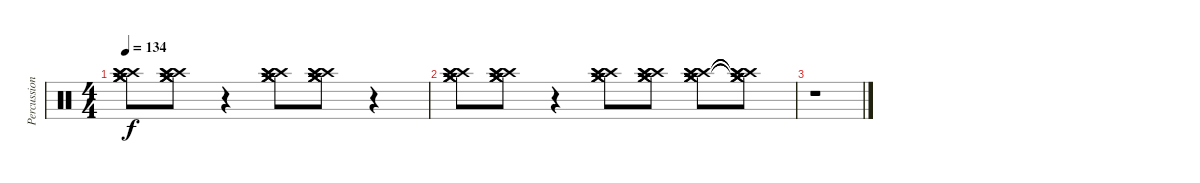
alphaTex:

\track ("Percussion 2" "Percussion") {instrument percussion}
\staff {score}
\articulation defaults
\ts (4 4)
\tempo 134
\clef neutral
\ks c
("Crash medium (hit)" "Crash medium (hit)" "Crash medium (hit)" "Crash high (hit)" "Crash high (hit)" "Crash high (hit)").8{dy f} ("Crash medium (hit)" "Crash medium (hit)" "Crash medium (hit)" "Crash high (hit)" "Crash high (hit)" "Crash high (hit)").8 r.4 ("Crash medium (hit)" "Crash medium (hit)" "Crash medium (hit)" "Crash high (hit)" "Crash high (hit)" "Crash high (hit)").8 ("Crash medium (hit)" "Crash medium (hit)" "Crash medium (hit)" "Crash high (hit)" "Crash high (hit)" "Crash high (hit)").8 r.4 |
("Crash medium (hit)" "Crash medium (hit)" "Crash medium (hit)" "Crash high (hit)" "Crash high (hit)" "Crash high (hit)").8 ("Crash medium (hit)" "Crash medium (hit)" "Crash medium (hit)" "Crash high (hit)" "Crash high (hit)" "Crash high (hit)").8 r.4 ("Crash medium (hit)" "Crash medium (hit)" "Crash medium (hit)" "Crash high (hit)" "Crash high (hit)" "Crash high (hit)").8 ("Crash medium (hit)" "Crash medium (hit)" "Crash medium (hit)" "Crash high (hit)" "Crash high (hit)" "Crash high (hit)").8 ("Crash medium (hit)" "Crash medium (hit)" "Crash medium (hit)" "Crash high (hit)" "Crash high (hit)" "Crash high (hit)").8 ("Crash medium (hit)"{t} "Crash medium (hit)"{t} "Crash medium (hit)"{t} "Crash high (hit)"{t} "Crash high (hit)"{t} "Crash high (hit)"{t}).8 |
r.1
